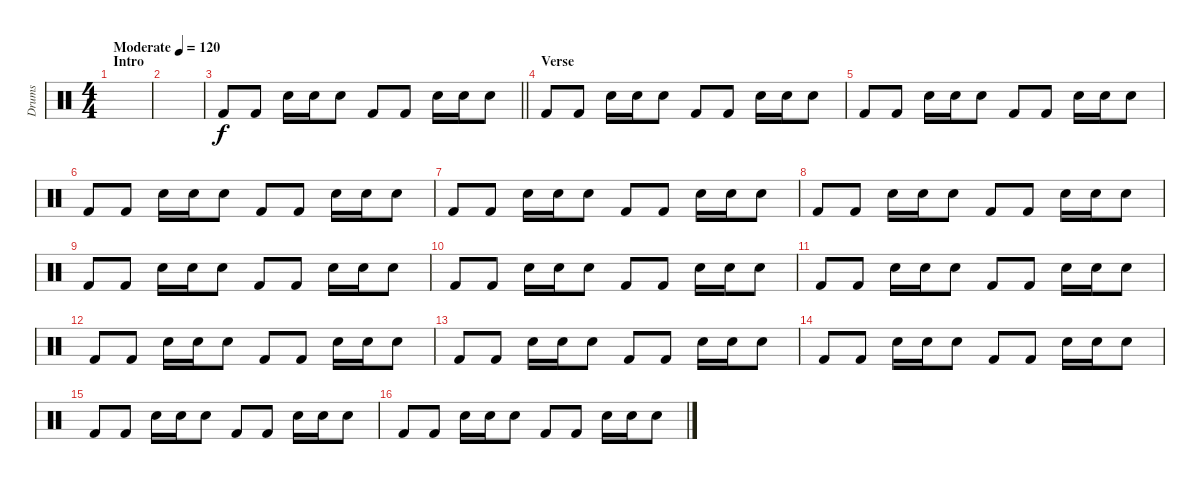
\track ("Drums" "Drums") {instrument percussion}
\staff {score}
\articulation defaults
\ts (4 4)
\section ("" "Intro")
\tempo (120 "Moderate")
\clef neutral
\ks c
|
|
\barLineRight lightlight "Kick (hit) 2".8 "Kick (hit) 2".8 "Snare (hit) 2".16 "Snare (hit) 2".16 "Snare (hit) 2".8 "Kick (hit) 2".8 "Kick (hit) 2".8 "Snare (hit) 2".16 "Snare (hit) 2".16 "Snare (hit) 2".8
|
\section ("" "Verse")
"Kick (hit) 2".8 "Kick (hit) 2".8 "Snare (hit) 2".16 "Snare (hit) 2".16 "Snare (hit) 2".8 "Kick (hit) 2".8 "Kick (hit) 2".8 "Snare (hit) 2".16 "Snare (hit) 2".16 "Snare (hit) 2".8 |
"Kick (hit) 2".8 "Kick (hit) 2".8 "Snare (hit) 2".16 "Snare (hit) 2".16 "Snare (hit) 2".8 "Kick (hit) 2".8 "Kick (hit) 2".8 "Snare (hit) 2".16 "Snare (hit) 2".16 "Snare (hit) 2".8 |
"Kick (hit) 2".8 "Kick (hit) 2".8 "Snare (hit) 2".16 "Snare (hit) 2".16 "Snare (hit) 2".8 "Kick (hit) 2".8 "Kick (hit) 2".8 "Snare (hit) 2".16 "Snare (hit) 2".16 "Snare (hit) 2".8 |
"Kick (hit) 2".8 "Kick (hit) 2".8 "Snare (hit) 2".16 "Snare (hit) 2".16 "Snare (hit) 2".8 "Kick (hit) 2".8 "Kick (hit) 2".8 "Snare (hit) 2".16 "Snare (hit) 2".16 "Snare (hit) 2".8 |
"Kick (hit) 2".8 "Kick (hit) 2".8 "Snare (hit) 2".16 "Snare (hit) 2".16 "Snare (hit) 2".8 "Kick (hit) 2".8 "Kick (hit) 2".8 "Snare (hit) 2".16 "Snare (hit) 2".16 "Snare (hit) 2".8 |
"Kick (hit) 2".8 "Kick (hit) 2".8 "Snare (hit) 2".16 "Snare (hit) 2".16 "Snare (hit) 2".8 "Kick (hit) 2".8 "Kick (hit) 2".8 "Snare (hit) 2".16 "Snare (hit) 2".16 "Snare (hit) 2".8 |
"Kick (hit) 2".8 "Kick (hit) 2".8 "Snare (hit) 2".16 "Snare (hit) 2".16 "Snare (hit) 2".8 "Kick (hit) 2".8 "Kick (hit) 2".8 "Snare (hit) 2".16 "Snare (hit) 2".16 "Snare (hit) 2".8 |
"Kick (hit) 2".8 "Kick (hit) 2".8 "Snare (hit) 2".16 "Snare (hit) 2".16 "Snare (hit) 2".8 "Kick (hit) 2".8 "Kick (hit) 2".8 "Snare (hit) 2".16 "Snare (hit) 2".16 "Snare (hit) 2".8 |
"Kick (hit) 2".8 "Kick (hit) 2".8 "Snare (hit) 2".16 "Snare (hit) 2".16 "Snare (hit) 2".8 "Kick (hit) 2".8 "Kick (hit) 2".8 "Snare (hit) 2".16 "Snare (hit) 2".16 "Snare (hit) 2".8 |
"Kick (hit) 2".8 "Kick (hit) 2".8 "Snare (hit) 2".16 "Snare (hit) 2".16 "Snare (hit) 2".8 "Kick (hit) 2".8 "Kick (hit) 2".8 "Snare (hit) 2".16 "Snare (hit) 2".16 "Snare (hit) 2".8 |
"Kick (hit) 2".8 "Kick (hit) 2".8 "Snare (hit) 2".16 "Snare (hit) 2".16 "Snare (hit) 2".8 "Kick (hit) 2".8 "Kick (hit) 2".8 "Snare (hit) 2".16 "Snare (hit) 2".16 "Snare (hit) 2".8 |
"Kick (hit) 2".8 "Kick (hit) 2".8 "Snare (hit) 2".16 "Snare (hit) 2".16 "Snare (hit) 2".8 "Kick (hit) 2".8 "Kick (hit) 2".8 "Snare (hit) 2".16 "Snare (hit) 2".16 "Snare (hit) 2".8 |
"Kick (hit) 2".8 "Kick (hit) 2".8 "Snare (hit) 2".16 "Snare (hit) 2".16 "Snare (hit) 2".8 "Kick (hit) 2".8 "Kick (hit) 2".8 "Snare (hit) 2".16 "Snare (hit) 2".16 "Snare (hit) 2".8
